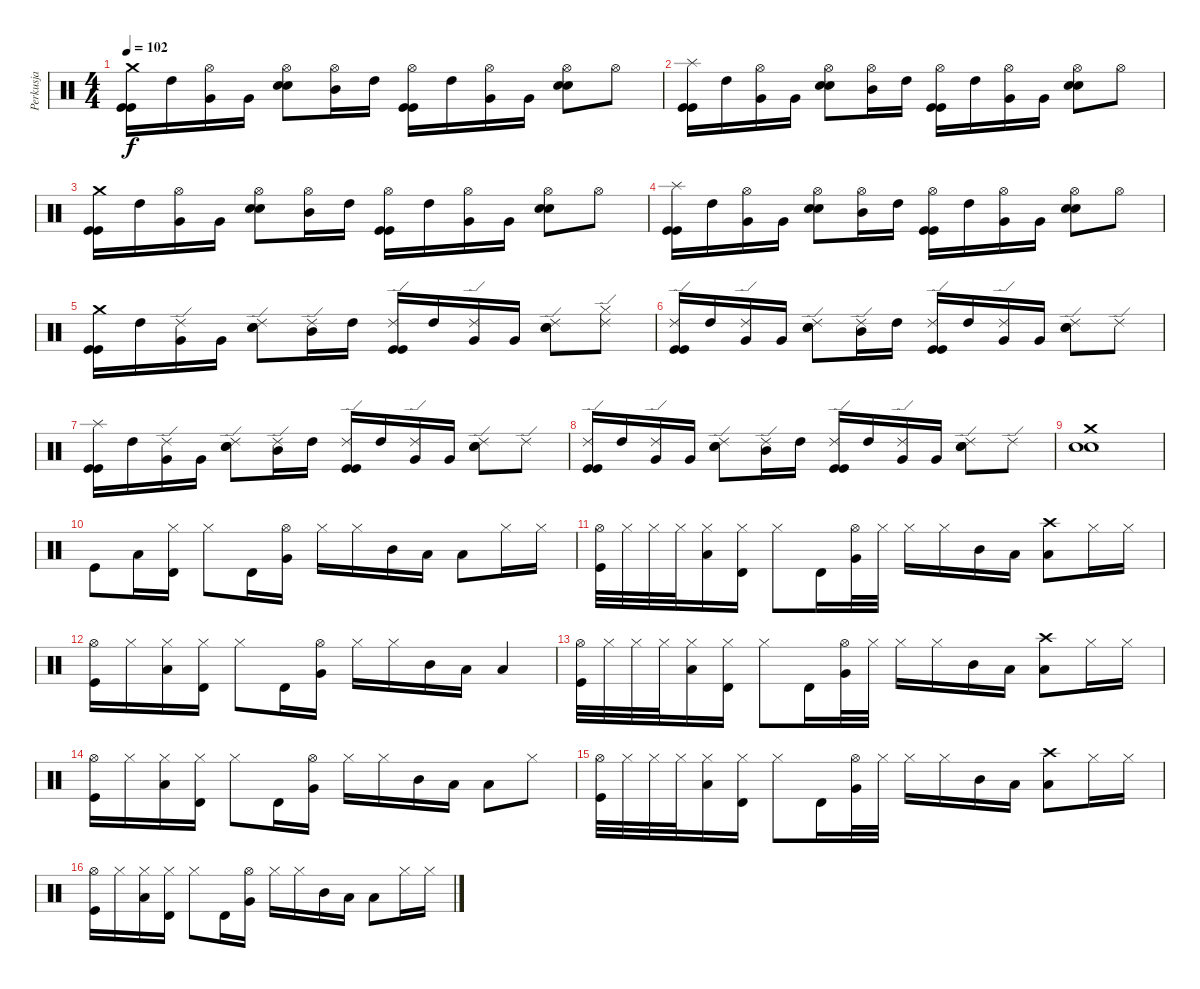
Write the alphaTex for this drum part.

\track ("Perkusja" "Perkusja") {instrument percussion}
\staff {score}
\articulation defaults
\ts (4 4)
\tempo 102
\clef neutral
\ks c
("Kick (hit)" "Kick (hit)" "Crash medium (hit)").16{dy f} "High Tom (hit)".16 ("Very Low Tom (hit)" "Hi-Hat (open)").16 "Very Low Tom (hit)".16 ("Electric Snare (hit)" "Electric Snare (hit)" "Hi-Hat (open)").8 ("Mid Tom (hit)" "Hi-Hat (open)").16 "High Tom (hit)".16 ("Kick (hit)" "Kick (hit)" "Hi-Hat (open)").16 "High Tom (hit)".16 ("Very Low Tom (hit)" "Hi-Hat (open)").16 "Very Low Tom (hit)".16 ("Electric Snare (hit)" "Electric Snare (hit)" "Hi-Hat (open)").8 "Hi-Hat (open)".8 |
("Kick (hit)" "Kick (hit)" "Splash (hit)").16 "High Tom (hit)".16 ("Very Low Tom (hit)" "Hi-Hat (open)").16 "Very Low Tom (hit)".16 ("Electric Snare (hit)" "Electric Snare (hit)" "Hi-Hat (open)").8 ("Mid Tom (hit)" "Hi-Hat (open)").16 "High Tom (hit)".16 ("Kick (hit)" "Kick (hit)" "Hi-Hat (open)").16 "High Tom (hit)".16 ("Very Low Tom (hit)" "Hi-Hat (open)").16 "Very Low Tom (hit)".16 ("Electric Snare (hit)" "Electric Snare (hit)" "Hi-Hat (open)").8 "Hi-Hat (open)".8 |
("Kick (hit)" "Kick (hit)" "Crash medium (hit)").16 "High Tom (hit)".16 ("Very Low Tom (hit)" "Hi-Hat (open)").16 "Very Low Tom (hit)".16 ("Electric Snare (hit)" "Electric Snare (hit)" "Hi-Hat (open)").8 ("Mid Tom (hit)" "Hi-Hat (open)").16 "High Tom (hit)".16 ("Kick (hit)" "Kick (hit)" "Hi-Hat (open)").16 "High Tom (hit)".16 ("Very Low Tom (hit)" "Hi-Hat (open)").16 "Very Low Tom (hit)".16 ("Electric Snare (hit)" "Electric Snare (hit)" "Hi-Hat (open)").8 "Hi-Hat (open)".8 |
("Kick (hit)" "Kick (hit)" "Splash (hit)").16 "High Tom (hit)".16 ("Very Low Tom (hit)" "Hi-Hat (open)").16 "Very Low Tom (hit)".16 ("Electric Snare (hit)" "Electric Snare (hit)" "Hi-Hat (open)").8 ("Mid Tom (hit)" "Hi-Hat (open)").16 "High Tom (hit)".16 ("Kick (hit)" "Kick (hit)" "Hi-Hat (open)").16 "High Tom (hit)".16 ("Very Low Tom (hit)" "Hi-Hat (open)").16 "Very Low Tom (hit)".16 ("Electric Snare (hit)" "Electric Snare (hit)" "Hi-Hat (open)").8 "Hi-Hat (open)".8 |
("Kick (hit)" "Kick (hit)" "Crash medium (hit)").16 "High Tom (hit)".16 ("Very Low Tom (hit)" "Ride (edge) 2").16 "Very Low Tom (hit)".16 ("Electric Snare (hit)" "Electric Snare (hit)" "Ride (edge) 2").8 ("Mid Tom (hit)" "Ride (edge) 2").16 "High Tom (hit)".16 ("Kick (hit)" "Kick (hit)" "Ride (edge) 2").16 "High Tom (hit)".16 ("Very Low Tom (hit)" "Ride (edge) 2").16 "Very Low Tom (hit)".16 ("Electric Snare (hit)" "Electric Snare (hit)" "Ride (edge) 2").8 ("Hi-Hat (closed)" "Ride (edge) 2").8 |
("Kick (hit)" "Kick (hit)" "Ride (edge) 2").16 "High Tom (hit)".16 ("Very Low Tom (hit)" "Ride (edge) 2").16 "Very Low Tom (hit)".16 ("Electric Snare (hit)" "Electric Snare (hit)" "Ride (edge) 2").8 ("Mid Tom (hit)" "Ride (edge) 2").16 "High Tom (hit)".16 ("Kick (hit)" "Kick (hit)" "Ride (edge) 2").16 "High Tom (hit)".16 ("Very Low Tom (hit)" "Ride (edge) 2").16 "Very Low Tom (hit)".16 ("Electric Snare (hit)" "Electric Snare (hit)" "Ride (edge) 2").8 "Ride (edge) 2".8 |
("Kick (hit)" "Kick (hit)" "Splash (hit)").16 "High Tom (hit)".16 ("Very Low Tom (hit)" "Ride (edge) 2").16 "Very Low Tom (hit)".16 ("Electric Snare (hit)" "Electric Snare (hit)" "Ride (edge) 2").8 ("Mid Tom (hit)" "Ride (edge) 2").16 "High Tom (hit)".16 ("Kick (hit)" "Kick (hit)" "Ride (edge) 2").16 "High Tom (hit)".16 ("Very Low Tom (hit)" "Ride (edge) 2").16 "Very Low Tom (hit)".16 ("Electric Snare (hit)" "Electric Snare (hit)" "Ride (edge) 2").8 "Ride (edge) 2".8 |
("Kick (hit)" "Kick (hit)" "Ride (edge) 2").16 "High Tom (hit)".16 ("Very Low Tom (hit)" "Ride (edge) 2").16 "Very Low Tom (hit)".16 ("Electric Snare (hit)" "Electric Snare (hit)" "Ride (edge) 2").8 ("Mid Tom (hit)" "Ride (edge) 2").16 "High Tom (hit)".16 ("Kick (hit)" "Kick (hit)" "Ride (edge) 2").16 "High Tom (hit)".16 ("Very Low Tom (hit)" "Ride (edge) 2").16 "Very Low Tom (hit)".16 ("Electric Snare (hit)" "Electric Snare (hit)" "Ride (edge) 2").8 "Ride (edge) 2".8 |
("Electric Snare (hit)" "Electric Snare (hit)" "Crash medium (hit)").1 |
"Kick (hit)".8 "Low Floor Tom (hit)".16 ("Timbale high (hit)" "Hi-Hat (closed)").16 "Hi-Hat (closed)".8 "Timbale high (hit)".16 ("Very Low Tom (hit)" "Hi-Hat (open)").16 "Hi-Hat (closed)".16 "Hi-Hat (closed)".16 "Mid Tom (hit)".16 "Low Tom (hit)".16 "Low Floor Tom (hit)".8 "Hi-Hat (closed)".16 "Hi-Hat (closed)".16 |
("Kick (hit)" "Hi-Hat (open)").32 "Hi-Hat (closed)".32 "Hi-Hat (closed)".32 "Hi-Hat (closed)".32 ("Low Floor Tom (hit)" "Hi-Hat (closed)").16 ("Timbale high (hit)" "Hi-Hat (closed)").16 "Hi-Hat (closed)".8 "Timbale high (hit)".16 ("Very Low Tom (hit)" "Hi-Hat (open)").32 "Hi-Hat (closed)".32 "Hi-Hat (closed)".16 "Hi-Hat (closed)".16 "Mid Tom (hit)".16 "Low Tom (hit)".16 ("Low Floor Tom (hit)" "Crash high (hit)").8 "Hi-Hat (closed)".16 "Hi-Hat (closed)".16 |
("Kick (hit)" "Hi-Hat (open)").16 "Hi-Hat (closed)".16 ("Low Floor Tom (hit)" "Hi-Hat (closed)").16 ("Timbale high (hit)" "Hi-Hat (closed)").16 "Hi-Hat (closed)".8 "Timbale high (hit)".16 ("Very Low Tom (hit)" "Hi-Hat (open)").16 "Hi-Hat (closed)".16 "Hi-Hat (closed)".16 "Mid Tom (hit)".16 "Low Tom (hit)".16 "Low Floor Tom (hit)".4 |
("Kick (hit)" "Hi-Hat (open)").32 "Hi-Hat (closed)".32 "Hi-Hat (closed)".32 "Hi-Hat (closed)".32 ("Low Floor Tom (hit)" "Hi-Hat (closed)").16 ("Timbale high (hit)" "Hi-Hat (closed)").16 "Hi-Hat (closed)".8 "Timbale high (hit)".16 ("Very Low Tom (hit)" "Hi-Hat (open)").32 "Hi-Hat (closed)".32 "Hi-Hat (closed)".16 "Hi-Hat (closed)".16 "Mid Tom (hit)".16 "Low Tom (hit)".16 ("Low Floor Tom (hit)" "Crash high (hit)").8 "Hi-Hat (closed)".16 "Hi-Hat (closed)".16 |
("Kick (hit)" "Hi-Hat (open)").16 "Hi-Hat (closed)".16 ("Low Floor Tom (hit)" "Hi-Hat (closed)").16 ("Timbale high (hit)" "Hi-Hat (closed)").16 "Hi-Hat (closed)".8 "Timbale high (hit)".16 ("Very Low Tom (hit)" "Hi-Hat (open)").16 "Hi-Hat (closed)".16 "Hi-Hat (closed)".16 "Mid Tom (hit)".16 "Low Tom (hit)".16 "Low Floor Tom (hit)".8 "Hi-Hat (closed)".8 |
("Kick (hit)" "Hi-Hat (open)").32 "Hi-Hat (closed)".32 "Hi-Hat (closed)".32 "Hi-Hat (closed)".32 ("Low Floor Tom (hit)" "Hi-Hat (closed)").16 ("Timbale high (hit)" "Hi-Hat (closed)").16 "Hi-Hat (closed)".8 "Timbale high (hit)".16 ("Very Low Tom (hit)" "Hi-Hat (open)").32 "Hi-Hat (closed)".32 "Hi-Hat (closed)".16 "Hi-Hat (closed)".16 "Mid Tom (hit)".16 "Low Tom (hit)".16 ("Low Floor Tom (hit)" "Crash high (hit)").8 "Hi-Hat (closed)".16 "Hi-Hat (closed)".16 |
("Kick (hit)" "Hi-Hat (open)").16 "Hi-Hat (closed)".16 ("Low Floor Tom (hit)" "Hi-Hat (closed)").16 ("Timbale high (hit)" "Hi-Hat (closed)").16 "Hi-Hat (closed)".8 "Timbale high (hit)".16 ("Very Low Tom (hit)" "Hi-Hat (open)").16 "Hi-Hat (closed)".16 "Hi-Hat (closed)".16 "Mid Tom (hit)".16 "Low Tom (hit)".16 "Low Floor Tom (hit)".8 "Hi-Hat (closed)".16 "Hi-Hat (closed)".16
